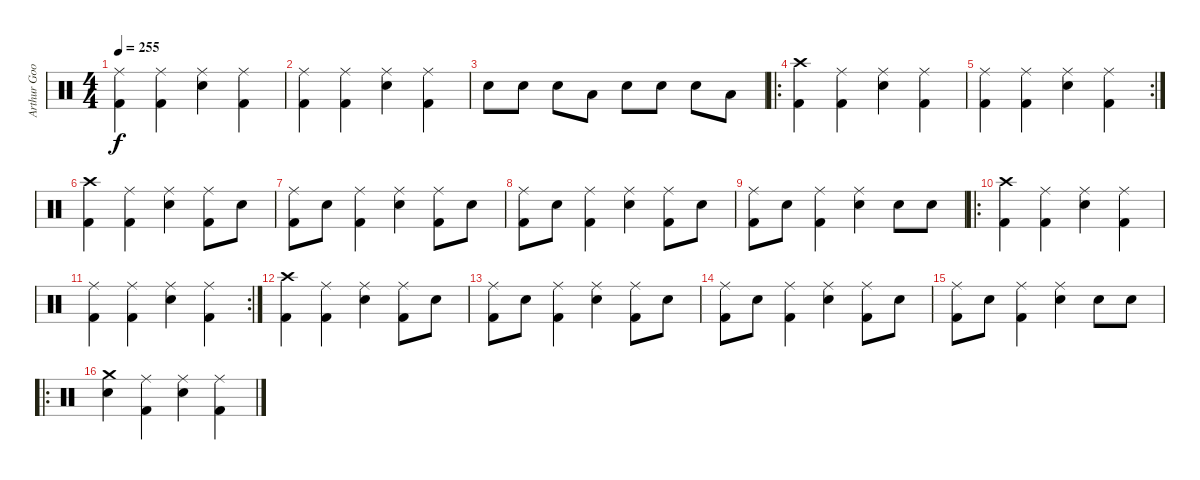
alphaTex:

\track ("Arthur Googy" "Arthur Goo") {instrument percussion}
\staff {score}
\articulation defaults
\ts (4 4)
\tempo 255
\clef neutral
\ks c
("Ride (middle)" "Kick (hit) 2").4{dy f} ("Ride (middle)" "Kick (hit) 2").4 ("Ride (middle)" "Electric Snare (hit)").4 ("Ride (middle)" "Kick (hit) 2").4 |
("Ride (middle)" "Kick (hit) 2").4 ("Ride (middle)" "Kick (hit) 2").4 ("Ride (middle)" "Electric Snare (hit)").4 ("Ride (middle)" "Kick (hit) 2").4 |
"Electric Snare (hit)".8 "Electric Snare (hit)".8 "Electric Snare (hit)".8 "Low Tom (hit)".8 "Electric Snare (hit)".8 "Electric Snare (hit)".8 "Electric Snare (hit)".8 "Low Tom (hit)".8 |
\ro
("Crash high (hit)" "Kick (hit) 2").4 ("Ride (middle)" "Kick (hit) 2").4 ("Ride (middle)" "Electric Snare (hit)").4 ("Ride (middle)" "Kick (hit) 2").4 |
\rc 2
("Ride (middle)" "Kick (hit) 2").4 ("Ride (middle)" "Kick (hit) 2").4 ("Ride (middle)" "Electric Snare (hit)").4 ("Ride (middle)" "Kick (hit) 2").4 |
("Crash high (hit)" "Kick (hit) 2").4 ("Ride (middle)" "Kick (hit) 2").4 ("Ride (middle)" "Electric Snare (hit)").4 ("Ride (middle)" "Kick (hit) 2").8 "Electric Snare (hit)".8 |
("Ride (middle)" "Kick (hit) 2").8 "Electric Snare (hit)".8 ("Ride (middle)" "Kick (hit) 2").4 ("Ride (middle)" "Electric Snare (hit)").4 ("Ride (middle)" "Kick (hit) 2").8 "Electric Snare (hit)".8 |
("Ride (middle)" "Kick (hit) 2").8 "Electric Snare (hit)".8 ("Ride (middle)" "Kick (hit) 2").4 ("Ride (middle)" "Electric Snare (hit)").4 ("Ride (middle)" "Kick (hit) 2").8 "Electric Snare (hit)".8 |
("Ride (middle)" "Kick (hit) 2").8 "Electric Snare (hit)".8 ("Ride (middle)" "Kick (hit) 2").4 ("Ride (middle)" "Electric Snare (hit)").4 "Electric Snare (hit)".8 "Electric Snare (hit)".8 |
\ro
("Crash high (hit)" "Kick (hit) 2").4 ("Ride (middle)" "Kick (hit) 2").4 ("Ride (middle)" "Electric Snare (hit)").4 ("Ride (middle)" "Kick (hit) 2").4 |
\rc 2
("Ride (middle)" "Kick (hit) 2").4 ("Ride (middle)" "Kick (hit) 2").4 ("Ride (middle)" "Electric Snare (hit)").4 ("Ride (middle)" "Kick (hit) 2").4 |
("Crash high (hit)" "Kick (hit) 2").4 ("Ride (middle)" "Kick (hit) 2").4 ("Ride (middle)" "Electric Snare (hit)").4 ("Ride (middle)" "Kick (hit) 2").8 "Electric Snare (hit)".8 |
("Ride (middle)" "Kick (hit) 2").8 "Electric Snare (hit)".8 ("Ride (middle)" "Kick (hit) 2").4 ("Ride (middle)" "Electric Snare (hit)").4 ("Ride (middle)" "Kick (hit) 2").8 "Electric Snare (hit)".8 |
("Ride (middle)" "Kick (hit) 2").8 "Electric Snare (hit)".8 ("Ride (middle)" "Kick (hit) 2").4 ("Ride (middle)" "Electric Snare (hit)").4 ("Ride (middle)" "Kick (hit) 2").8 "Electric Snare (hit)".8 |
("Ride (middle)" "Kick (hit) 2").8 "Electric Snare (hit)".8 ("Ride (middle)" "Kick (hit) 2").4 ("Ride (middle)" "Electric Snare (hit)").4 "Electric Snare (hit)".8 "Electric Snare (hit)".8 |
\ro
("Crash medium (hit)" "Electric Snare (hit)").4 ("Ride (middle)" "Kick (hit) 2").4 ("Ride (middle)" "Electric Snare (hit)").4 ("Ride (middle)" "Kick (hit) 2").4
